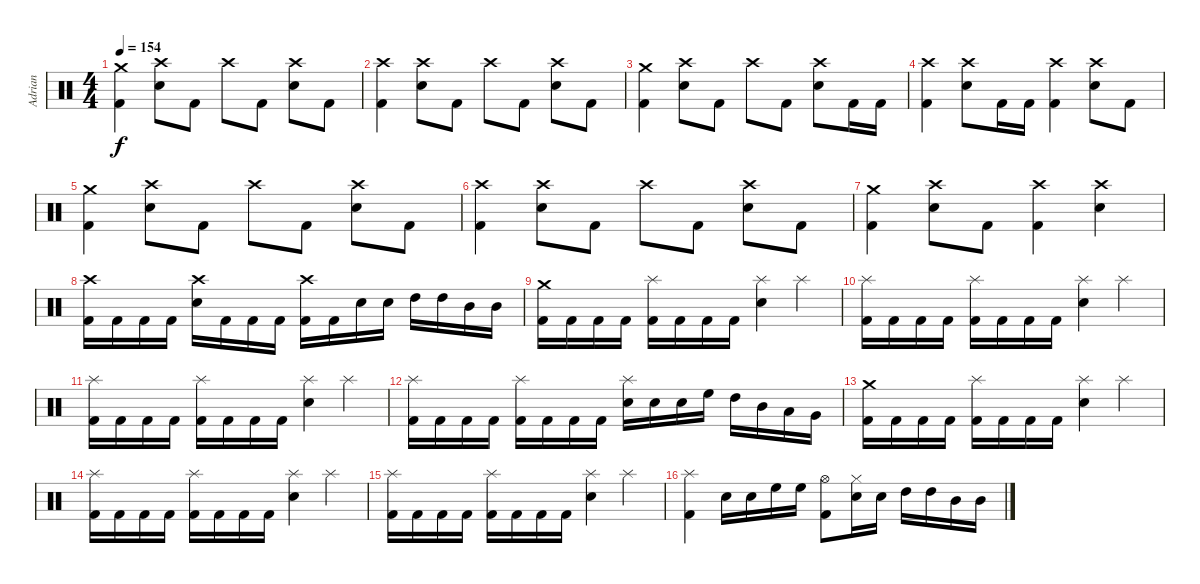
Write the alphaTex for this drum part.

\track ("Adrian" "Adrian") {instrument percussion}
\staff {score}
\articulation defaults
\ts (4 4)
\tempo 154
\clef neutral
\ks c
("Crash medium (hit)" "Kick (hit) 2").4{dy f} ("Crash high (hit)" "Electric Snare (hit)").8 "Kick (hit) 2".8 "Crash high (hit)".8 "Kick (hit) 2".8 ("Crash high (hit)" "Electric Snare (hit)").8 "Kick (hit) 2".8 |
("Crash high (hit)" "Kick (hit) 2").4 ("Crash high (hit)" "Electric Snare (hit)").8 "Kick (hit) 2".8 "Crash high (hit)".8 "Kick (hit) 2".8 ("Crash high (hit)" "Electric Snare (hit)").8 "Kick (hit) 2".8 |
("Crash medium (hit)" "Kick (hit) 2").4 ("Crash high (hit)" "Electric Snare (hit)").8 "Kick (hit) 2".8 "Crash high (hit)".8 "Kick (hit) 2".8 ("Crash high (hit)" "Electric Snare (hit)").8 "Kick (hit) 2".16 "Kick (hit) 2".16 |
("Crash high (hit)" "Kick (hit) 2").4 ("Crash high (hit)" "Electric Snare (hit)").8 "Kick (hit) 2".16 "Kick (hit) 2".16 ("Crash high (hit)" "Kick (hit) 2").4 ("Crash high (hit)" "Electric Snare (hit)").8 "Kick (hit) 2".8 |
("Crash medium (hit)" "Kick (hit) 2").4 ("Crash high (hit)" "Electric Snare (hit)").8 "Kick (hit) 2".8 "Crash high (hit)".8 "Kick (hit) 2".8 ("Crash high (hit)" "Electric Snare (hit)").8 "Kick (hit) 2".8 |
("Crash high (hit)" "Kick (hit) 2").4 ("Crash high (hit)" "Electric Snare (hit)").8 "Kick (hit) 2".8 "Crash high (hit)".8 "Kick (hit) 2".8 ("Crash high (hit)" "Electric Snare (hit)").8 "Kick (hit) 2".8 |
("Crash medium (hit)" "Kick (hit) 2").4 ("Crash high (hit)" "Electric Snare (hit)").8 "Kick (hit) 2".8 ("Crash high (hit)" "Kick (hit) 2").4 ("Crash high (hit)" "Electric Snare (hit)").4 |
("Crash high (hit)" "Kick (hit) 2").16 "Kick (hit) 2".16 "Kick (hit) 2".16 "Kick (hit) 2".16 ("Crash high (hit)" "Electric Snare (hit)").16 "Kick (hit) 2".16 "Kick (hit) 2".16 "Kick (hit) 2".16 ("Crash high (hit)" "Kick (hit) 2").16 "Kick (hit) 2".16 "Electric Snare (hit)".16 "Electric Snare (hit)".16 "High Tom (hit)".16 "High Tom (hit)".16 "Mid Tom (hit)".16 "Mid Tom (hit)".16 |
("Crash medium (hit)" "Kick (hit) 2").16 "Kick (hit) 2".16 "Kick (hit) 2".16 "Kick (hit) 2".16 ("Splash (hit)" "Kick (hit) 2").16 "Kick (hit) 2".16 "Kick (hit) 2".16 "Kick (hit) 2".16 ("Splash (hit)" "Electric Snare (hit)").4 "Splash (hit)".4 |
("Splash (hit)" "Kick (hit) 2").16 "Kick (hit) 2".16 "Kick (hit) 2".16 "Kick (hit) 2".16 ("Splash (hit)" "Kick (hit) 2").16 "Kick (hit) 2".16 "Kick (hit) 2".16 "Kick (hit) 2".16 ("Splash (hit)" "Electric Snare (hit)").4 "Splash (hit)".4 |
("Splash (hit)" "Kick (hit) 2").16 "Kick (hit) 2".16 "Kick (hit) 2".16 "Kick (hit) 2".16 ("Splash (hit)" "Kick (hit) 2").16 "Kick (hit) 2".16 "Kick (hit) 2".16 "Kick (hit) 2".16 ("Splash (hit)" "Electric Snare (hit)").4 "Splash (hit)".4 |
("Splash (hit)" "Kick (hit) 2").16 "Kick (hit) 2".16 "Kick (hit) 2".16 "Kick (hit) 2".16 ("Splash (hit)" "Kick (hit) 2").16 "Kick (hit) 2".16 "Kick (hit) 2".16 "Kick (hit) 2".16 ("Splash (hit)" "Electric Snare (hit)").16 "Electric Snare (hit)".16 "Electric Snare (hit)".16 "High Floor Tom (hit)".16 "High Tom (hit)".16 "Mid Tom (hit)".16 "Low Tom (hit)".16 "Very Low Tom (hit)".16 |
("Crash medium (hit)" "Kick (hit) 2").16 "Kick (hit) 2".16 "Kick (hit) 2".16 "Kick (hit) 2".16 ("Splash (hit)" "Kick (hit) 2").16 "Kick (hit) 2".16 "Kick (hit) 2".16 "Kick (hit) 2".16 ("Splash (hit)" "Electric Snare (hit)").4 "Splash (hit)".4 |
("Splash (hit)" "Kick (hit) 2").16 "Kick (hit) 2".16 "Kick (hit) 2".16 "Kick (hit) 2".16 ("Splash (hit)" "Kick (hit) 2").16 "Kick (hit) 2".16 "Kick (hit) 2".16 "Kick (hit) 2".16 ("Splash (hit)" "Electric Snare (hit)").4 "Splash (hit)".4 |
("Splash (hit)" "Kick (hit) 2").16 "Kick (hit) 2".16 "Kick (hit) 2".16 "Kick (hit) 2".16 ("Splash (hit)" "Kick (hit) 2").16 "Kick (hit) 2".16 "Kick (hit) 2".16 "Kick (hit) 2".16 ("Splash (hit)" "Electric Snare (hit)").4 "Splash (hit)".4 |
("Splash (hit)" "Kick (hit) 2").4 "Electric Snare (hit)".16 "Electric Snare (hit)".16 "High Floor Tom (hit)".16 "High Floor Tom (hit)".16 ("Hi-Hat (open)" "Kick (hit) 2").8 ("Hi-Hat (closed)" "Electric Snare (hit)").16 "Electric Snare (hit)".16 "High Tom (hit)".16 "High Tom (hit)".16 "Mid Tom (hit)".16 "Mid Tom (hit)".16
